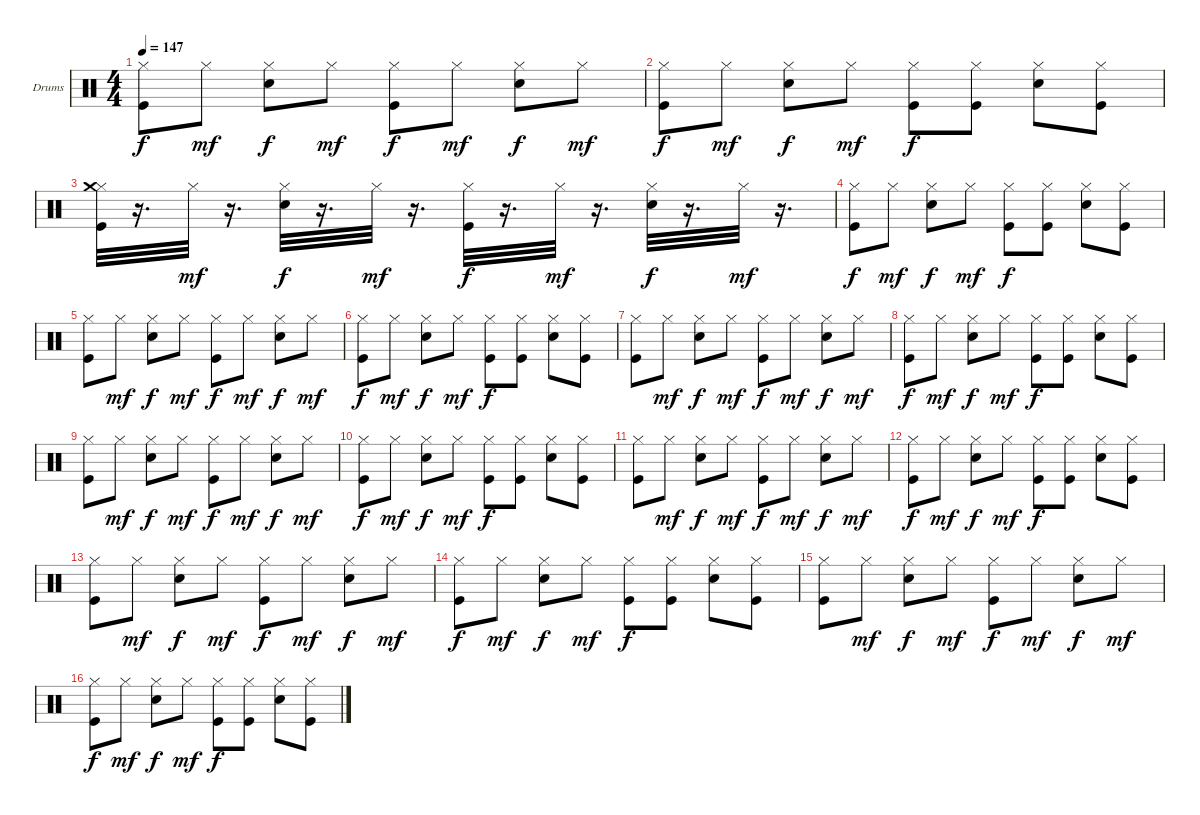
\bracketExtendMode groupsimilarinstruments
\firstSystemTrackNameOrientation horizontal
\otherSystemsTrackNameOrientation horizontal
\track ("Drumkit" "Drums") {instrument percussion}
\staff {score}
\articulation defaults
\ts (4 4)
\tempo 147
\clef neutral
\ks c
("Hi-Hat (closed)" "Kick (hit)").8{dy f} "Hi-Hat (closed)".8{dy mf} ("Hi-Hat (closed)" "Snare (hit) 2").8{dy f} "Hi-Hat (closed)".8{dy mf} ("Hi-Hat (closed)" "Kick (hit)").8{dy f} "Hi-Hat (closed)".8{dy mf} ("Hi-Hat (closed)" "Snare (hit) 2").8{dy f} "Hi-Hat (closed)".8{dy mf} |
("Hi-Hat (closed)" "Kick (hit)").8{dy f} "Hi-Hat (closed)".8{dy mf} ("Hi-Hat (closed)" "Snare (hit) 2").8{dy f} "Hi-Hat (closed)".8{dy mf} ("Hi-Hat (closed)" "Kick (hit)").8{dy f} ("Hi-Hat (closed)" "Kick (hit)").8 ("Hi-Hat (closed)" "Snare (hit) 2").8 ("Hi-Hat (closed)" "Kick (hit)").8 |
("Kick (hit)" "Hi-Hat (closed)" "Crash medium (hit)").32 r.16{d} "Hi-Hat (closed)".32{dy mf} r.16{d} ("Snare (hit) 2" "Hi-Hat (closed)").32{dy f} r.16{d} "Hi-Hat (closed)".32{dy mf} r.16{d} ("Kick (hit)" "Hi-Hat (closed)").32{dy f} r.16{d} "Hi-Hat (closed)".32{dy mf} r.16{d} ("Snare (hit) 2" "Hi-Hat (closed)").32{dy f} r.16{d} "Hi-Hat (closed)".32{dy mf} r.16{d} |
("Hi-Hat (closed)" "Kick (hit)").8{dy f} "Hi-Hat (closed)".8{dy mf} ("Hi-Hat (closed)" "Snare (hit) 2").8{dy f} "Hi-Hat (closed)".8{dy mf} ("Hi-Hat (closed)" "Kick (hit)").8{dy f} ("Hi-Hat (closed)" "Kick (hit)").8 ("Hi-Hat (closed)" "Snare (hit) 2").8 ("Hi-Hat (closed)" "Kick (hit)").8 |
("Hi-Hat (closed)" "Kick (hit)").8 "Hi-Hat (closed)".8{dy mf} ("Hi-Hat (closed)" "Snare (hit) 2").8{dy f} "Hi-Hat (closed)".8{dy mf} ("Hi-Hat (closed)" "Kick (hit)").8{dy f} "Hi-Hat (closed)".8{dy mf} ("Hi-Hat (closed)" "Snare (hit) 2").8{dy f} "Hi-Hat (closed)".8{dy mf} |
("Hi-Hat (closed)" "Kick (hit)").8{dy f} "Hi-Hat (closed)".8{dy mf} ("Hi-Hat (closed)" "Snare (hit) 2").8{dy f} "Hi-Hat (closed)".8{dy mf} ("Hi-Hat (closed)" "Kick (hit)").8{dy f} ("Hi-Hat (closed)" "Kick (hit)").8 ("Hi-Hat (closed)" "Snare (hit) 2").8 ("Hi-Hat (closed)" "Kick (hit)").8 |
("Hi-Hat (closed)" "Kick (hit)").8 "Hi-Hat (closed)".8{dy mf} ("Hi-Hat (closed)" "Snare (hit) 2").8{dy f} "Hi-Hat (closed)".8{dy mf} ("Hi-Hat (closed)" "Kick (hit)").8{dy f} "Hi-Hat (closed)".8{dy mf} ("Hi-Hat (closed)" "Snare (hit) 2").8{dy f} "Hi-Hat (closed)".8{dy mf} |
("Hi-Hat (closed)" "Kick (hit)").8{dy f} "Hi-Hat (closed)".8{dy mf} ("Hi-Hat (closed)" "Snare (hit) 2").8{dy f} "Hi-Hat (closed)".8{dy mf} ("Hi-Hat (closed)" "Kick (hit)").8{dy f} ("Hi-Hat (closed)" "Kick (hit)").8 ("Hi-Hat (closed)" "Snare (hit) 2").8 ("Hi-Hat (closed)" "Kick (hit)").8 |
("Hi-Hat (closed)" "Kick (hit)").8 "Hi-Hat (closed)".8{dy mf} ("Hi-Hat (closed)" "Snare (hit) 2").8{dy f} "Hi-Hat (closed)".8{dy mf} ("Hi-Hat (closed)" "Kick (hit)").8{dy f} "Hi-Hat (closed)".8{dy mf} ("Hi-Hat (closed)" "Snare (hit) 2").8{dy f} "Hi-Hat (closed)".8{dy mf} |
("Hi-Hat (closed)" "Kick (hit)").8{dy f} "Hi-Hat (closed)".8{dy mf} ("Hi-Hat (closed)" "Snare (hit) 2").8{dy f} "Hi-Hat (closed)".8{dy mf} ("Hi-Hat (closed)" "Kick (hit)").8{dy f} ("Hi-Hat (closed)" "Kick (hit)").8 ("Hi-Hat (closed)" "Snare (hit) 2").8 ("Hi-Hat (closed)" "Kick (hit)").8 |
("Hi-Hat (closed)" "Kick (hit)").8 "Hi-Hat (closed)".8{dy mf} ("Hi-Hat (closed)" "Snare (hit) 2").8{dy f} "Hi-Hat (closed)".8{dy mf} ("Hi-Hat (closed)" "Kick (hit)").8{dy f} "Hi-Hat (closed)".8{dy mf} ("Hi-Hat (closed)" "Snare (hit) 2").8{dy f} "Hi-Hat (closed)".8{dy mf} |
("Hi-Hat (closed)" "Kick (hit)").8{dy f} "Hi-Hat (closed)".8{dy mf} ("Hi-Hat (closed)" "Snare (hit) 2").8{dy f} "Hi-Hat (closed)".8{dy mf} ("Hi-Hat (closed)" "Kick (hit)").8{dy f} ("Hi-Hat (closed)" "Kick (hit)").8 ("Hi-Hat (closed)" "Snare (hit) 2").8 ("Hi-Hat (closed)" "Kick (hit)").8 |
("Hi-Hat (closed)" "Kick (hit)").8 "Hi-Hat (closed)".8{dy mf} ("Hi-Hat (closed)" "Snare (hit) 2").8{dy f} "Hi-Hat (closed)".8{dy mf} ("Hi-Hat (closed)" "Kick (hit)").8{dy f} "Hi-Hat (closed)".8{dy mf} ("Hi-Hat (closed)" "Snare (hit) 2").8{dy f} "Hi-Hat (closed)".8{dy mf} |
("Hi-Hat (closed)" "Kick (hit)").8{dy f} "Hi-Hat (closed)".8{dy mf} ("Hi-Hat (closed)" "Snare (hit) 2").8{dy f} "Hi-Hat (closed)".8{dy mf} ("Hi-Hat (closed)" "Kick (hit)").8{dy f} ("Hi-Hat (closed)" "Kick (hit)").8 ("Hi-Hat (closed)" "Snare (hit) 2").8 ("Hi-Hat (closed)" "Kick (hit)").8 |
("Hi-Hat (closed)" "Kick (hit)").8 "Hi-Hat (closed)".8{dy mf} ("Hi-Hat (closed)" "Snare (hit) 2").8{dy f} "Hi-Hat (closed)".8{dy mf} ("Hi-Hat (closed)" "Kick (hit)").8{dy f} "Hi-Hat (closed)".8{dy mf} ("Hi-Hat (closed)" "Snare (hit) 2").8{dy f} "Hi-Hat (closed)".8{dy mf} |
("Hi-Hat (closed)" "Kick (hit)").8{dy f} "Hi-Hat (closed)".8{dy mf} ("Hi-Hat (closed)" "Snare (hit) 2").8{dy f} "Hi-Hat (closed)".8{dy mf} ("Hi-Hat (closed)" "Kick (hit)").8{dy f} ("Hi-Hat (closed)" "Kick (hit)").8 ("Hi-Hat (closed)" "Snare (hit) 2").8 ("Hi-Hat (closed)" "Kick (hit)").8
